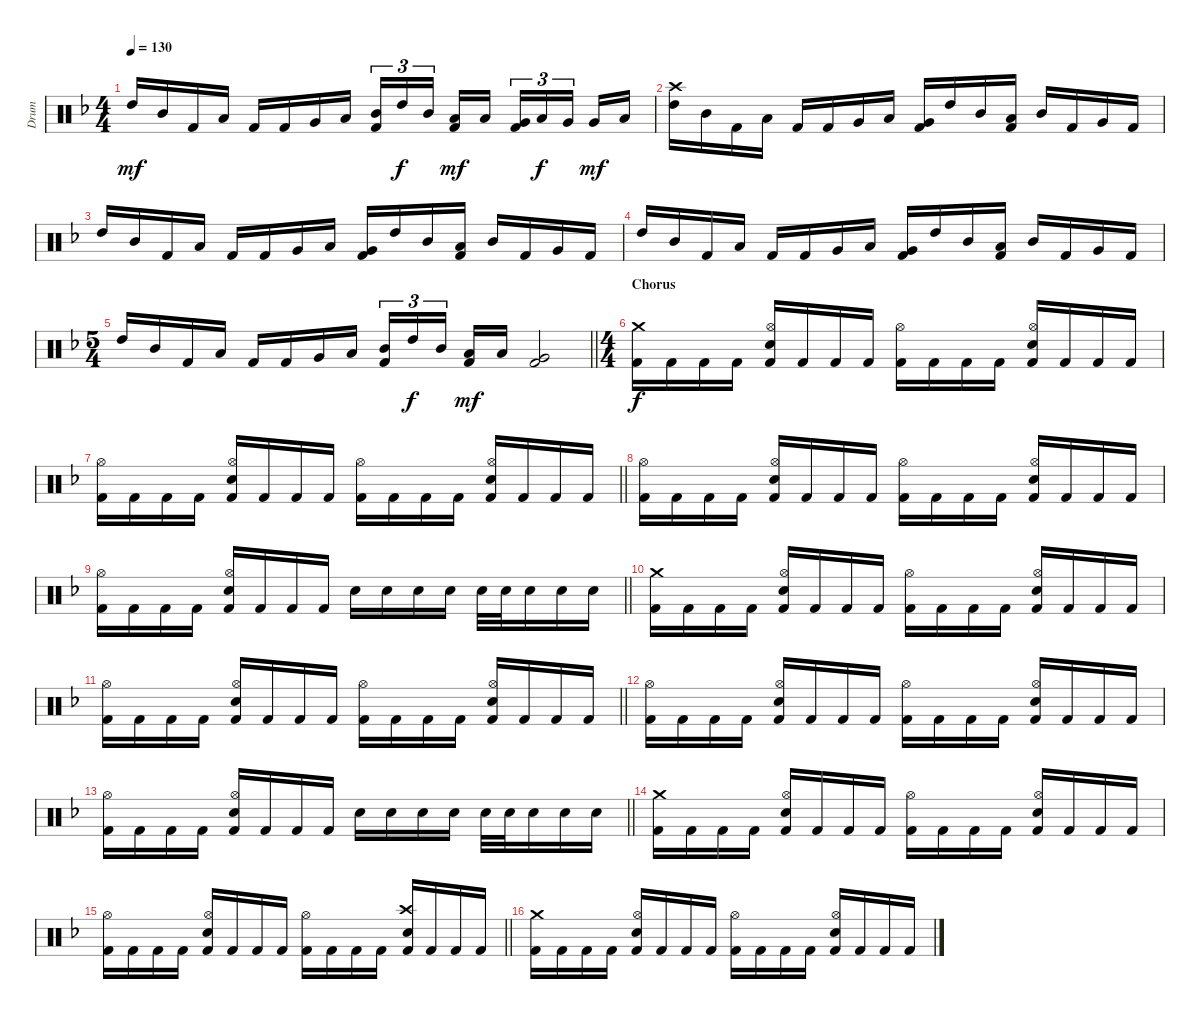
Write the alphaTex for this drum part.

\track ("Drum" "Drum") {instrument percussion}
\staff {score}
\articulation defaults
\ts (4 4)
\tempo 130
\clef neutral
\ks f "High Tom (hit)".16{dy mf} "Mid Tom (hit)".16 "Kick (hit) 2".16 "Low Tom (hit)".16 "Kick (hit) 2".16 "Kick (hit) 2".16 "Very Low Tom (hit)".16 "Low Floor Tom (hit)".16
("Mid Tom (hit)" "Kick (hit) 2").16{tu (3 2)} "High Tom (hit)".16{tu (3 2) dy f} "Mid Tom (hit)".16{tu (3 2) beam splitsecondary} ("Low Tom (hit)" "Kick (hit) 2").16{dy mf} "Low Tom (hit)".16 ("Very Low Tom (hit)" "Kick (hit) 2").16{tu (3 2)} "Low Tom (hit)".16{tu (3 2) dy f} "Very Low Tom (hit)".16{tu (3 2) beam splitsecondary} "Very Low Tom (hit)".16{dy mf} "Low Floor Tom (hit)".16 |
("Crash high (hit)" "High Tom (hit)").16 "Mid Tom (hit)".16 "Kick (hit) 2".16 "Low Tom (hit)".16 "Kick (hit) 2".16 "Kick (hit) 2".16 "Very Low Tom (hit)".16 "Low Floor Tom (hit)".16 ("Very Low Tom (hit)" "Kick (hit) 2").16 "High Tom (hit)".16 "Mid Tom (hit)".16 ("Low Tom (hit)" "Kick (hit) 2").16 "Mid Tom (hit)".16 "Kick (hit) 2".16 "Very Low Tom (hit)".16 "Kick (hit) 2".16 |
"High Tom (hit)".16 "Mid Tom (hit)".16 "Kick (hit) 2".16 "Low Tom (hit)".16 "Kick (hit) 2".16 "Kick (hit) 2".16 "Very Low Tom (hit)".16 "Low Floor Tom (hit)".16 ("Very Low Tom (hit)" "Kick (hit) 2").16 "High Tom (hit)".16 "Mid Tom (hit)".16 ("Low Tom (hit)" "Kick (hit) 2").16 "Mid Tom (hit)".16 "Kick (hit) 2".16 "Very Low Tom (hit)".16 "Kick (hit) 2".16 |
"High Tom (hit)".16 "Mid Tom (hit)".16 "Kick (hit) 2".16 "Low Tom (hit)".16 "Kick (hit) 2".16 "Kick (hit) 2".16 "Very Low Tom (hit)".16 "Low Floor Tom (hit)".16 ("Very Low Tom (hit)" "Kick (hit) 2").16 "High Tom (hit)".16 "Mid Tom (hit)".16 ("Low Tom (hit)" "Kick (hit) 2").16 "Mid Tom (hit)".16 "Kick (hit) 2".16 "Very Low Tom (hit)".16 "Kick (hit) 2".16 |
\ts (5 4)
\barLineRight lightlight "High Tom (hit)".16 "Mid Tom (hit)".16 "Kick (hit) 2".16 "Low Tom (hit)".16 "Kick (hit) 2".16 "Kick (hit) 2".16 "Very Low Tom (hit)".16 "Low Floor Tom (hit)".16
("Mid Tom (hit)" "Kick (hit) 2").16{tu (3 2)} "High Tom (hit)".16{tu (3 2) dy f} "Mid Tom (hit)".16{tu (3 2) beam splitsecondary} ("Low Tom (hit)" "Kick (hit) 2").16{dy mf} "Low Tom (hit)".16 ("Very Low Tom (hit)" "Kick (hit) 2").2 |
\ts (4 4)
\section ("" "Chorus")
("Crash medium (hit)" "Kick (hit) 2").16{dy f} "Kick (hit) 2".16 "Kick (hit) 2".16 "Kick (hit) 2".16 ("Hi-Hat (open)" "Electric Snare (hit)" "Kick (hit) 2").16 "Kick (hit) 2".16 "Kick (hit) 2".16 "Kick (hit) 2".16 ("Hi-Hat (open)" "Kick (hit) 2").16 "Kick (hit) 2".16 "Kick (hit) 2".16 "Kick (hit) 2".16 ("Hi-Hat (open)" "Electric Snare (hit)" "Kick (hit) 2").16 "Kick (hit) 2".16 "Kick (hit) 2".16 "Kick (hit) 2".16 |
\barLineRight lightlight
("Hi-Hat (open)" "Kick (hit) 2").16 "Kick (hit) 2".16 "Kick (hit) 2".16 "Kick (hit) 2".16 ("Hi-Hat (open)" "Electric Snare (hit)" "Kick (hit) 2").16 "Kick (hit) 2".16 "Kick (hit) 2".16 "Kick (hit) 2".16 ("Hi-Hat (open)" "Kick (hit) 2").16 "Kick (hit) 2".16 "Kick (hit) 2".16 "Kick (hit) 2".16 ("Hi-Hat (open)" "Electric Snare (hit)" "Kick (hit) 2").16 "Kick (hit) 2".16 "Kick (hit) 2".16 "Kick (hit) 2".16 |
("Hi-Hat (open)" "Kick (hit) 2").16 "Kick (hit) 2".16 "Kick (hit) 2".16 "Kick (hit) 2".16 ("Hi-Hat (open)" "Electric Snare (hit)" "Kick (hit) 2").16 "Kick (hit) 2".16 "Kick (hit) 2".16 "Kick (hit) 2".16 ("Hi-Hat (open)" "Kick (hit) 2").16 "Kick (hit) 2".16 "Kick (hit) 2".16 "Kick (hit) 2".16 ("Hi-Hat (open)" "Electric Snare (hit)" "Kick (hit) 2").16 "Kick (hit) 2".16 "Kick (hit) 2".16 "Kick (hit) 2".16 |
\barLineRight lightlight
("Hi-Hat (open)" "Kick (hit) 2").16 "Kick (hit) 2".16 "Kick (hit) 2".16 "Kick (hit) 2".16 ("Hi-Hat (open)" "Electric Snare (hit)" "Kick (hit) 2").16 "Kick (hit) 2".16 "Kick (hit) 2".16 "Kick (hit) 2".16 "Electric Snare (hit)".16 "Electric Snare (hit)".16 "Electric Snare (hit)".16 "Electric Snare (hit)".16 "Electric Snare (hit)".32 "Electric Snare (hit)".32 "Electric Snare (hit)".16 "Electric Snare (hit)".16 "Electric Snare (hit)".16 |
("Crash medium (hit)" "Kick (hit) 2").16 "Kick (hit) 2".16 "Kick (hit) 2".16 "Kick (hit) 2".16 ("Hi-Hat (open)" "Electric Snare (hit)" "Kick (hit) 2").16 "Kick (hit) 2".16 "Kick (hit) 2".16 "Kick (hit) 2".16 ("Hi-Hat (open)" "Kick (hit) 2").16 "Kick (hit) 2".16 "Kick (hit) 2".16 "Kick (hit) 2".16 ("Hi-Hat (open)" "Electric Snare (hit)" "Kick (hit) 2").16 "Kick (hit) 2".16 "Kick (hit) 2".16 "Kick (hit) 2".16 |
\barLineRight lightlight
("Hi-Hat (open)" "Kick (hit) 2").16 "Kick (hit) 2".16 "Kick (hit) 2".16 "Kick (hit) 2".16 ("Hi-Hat (open)" "Electric Snare (hit)" "Kick (hit) 2").16 "Kick (hit) 2".16 "Kick (hit) 2".16 "Kick (hit) 2".16 ("Hi-Hat (open)" "Kick (hit) 2").16 "Kick (hit) 2".16 "Kick (hit) 2".16 "Kick (hit) 2".16 ("Hi-Hat (open)" "Electric Snare (hit)" "Kick (hit) 2").16 "Kick (hit) 2".16 "Kick (hit) 2".16 "Kick (hit) 2".16 |
("Hi-Hat (open)" "Kick (hit) 2").16 "Kick (hit) 2".16 "Kick (hit) 2".16 "Kick (hit) 2".16 ("Hi-Hat (open)" "Electric Snare (hit)" "Kick (hit) 2").16 "Kick (hit) 2".16 "Kick (hit) 2".16 "Kick (hit) 2".16 ("Hi-Hat (open)" "Kick (hit) 2").16 "Kick (hit) 2".16 "Kick (hit) 2".16 "Kick (hit) 2".16 ("Hi-Hat (open)" "Electric Snare (hit)" "Kick (hit) 2").16 "Kick (hit) 2".16 "Kick (hit) 2".16 "Kick (hit) 2".16 |
\barLineRight lightlight
("Hi-Hat (open)" "Kick (hit) 2").16 "Kick (hit) 2".16 "Kick (hit) 2".16 "Kick (hit) 2".16 ("Hi-Hat (open)" "Electric Snare (hit)" "Kick (hit) 2").16 "Kick (hit) 2".16 "Kick (hit) 2".16 "Kick (hit) 2".16 "Electric Snare (hit)".16 "Electric Snare (hit)".16 "Electric Snare (hit)".16 "Electric Snare (hit)".16 "Electric Snare (hit)".32 "Electric Snare (hit)".32 "Electric Snare (hit)".16 "Electric Snare (hit)".16 "Electric Snare (hit)".16 |
("Crash medium (hit)" "Kick (hit) 2").16 "Kick (hit) 2".16 "Kick (hit) 2".16 "Kick (hit) 2".16 ("Hi-Hat (open)" "Electric Snare (hit)" "Kick (hit) 2").16 "Kick (hit) 2".16 "Kick (hit) 2".16 "Kick (hit) 2".16 ("Hi-Hat (open)" "Kick (hit) 2").16 "Kick (hit) 2".16 "Kick (hit) 2".16 "Kick (hit) 2".16 ("Hi-Hat (open)" "Electric Snare (hit)" "Kick (hit) 2").16 "Kick (hit) 2".16 "Kick (hit) 2".16 "Kick (hit) 2".16 |
\barLineRight lightlight
("Hi-Hat (open)" "Kick (hit) 2").16 "Kick (hit) 2".16 "Kick (hit) 2".16 "Kick (hit) 2".16 ("Hi-Hat (open)" "Electric Snare (hit)" "Kick (hit) 2").16 "Kick (hit) 2".16 "Kick (hit) 2".16 "Kick (hit) 2".16 ("Hi-Hat (open)" "Kick (hit) 2").16 "Kick (hit) 2".16 "Kick (hit) 2".16 "Kick (hit) 2".16 ("Crash high (hit)" "Electric Snare (hit)" "Kick (hit) 2").16 "Kick (hit) 2".16 "Kick (hit) 2".16 "Kick (hit) 2".16 |
("Crash medium (hit)" "Kick (hit) 2").16 "Kick (hit) 2".16 "Kick (hit) 2".16 "Kick (hit) 2".16 ("Hi-Hat (open)" "Electric Snare (hit)" "Kick (hit) 2").16 "Kick (hit) 2".16 "Kick (hit) 2".16 "Kick (hit) 2".16 ("Hi-Hat (open)" "Kick (hit) 2").16 "Kick (hit) 2".16 "Kick (hit) 2".16 "Kick (hit) 2".16 ("Hi-Hat (open)" "Electric Snare (hit)" "Kick (hit) 2").16 "Kick (hit) 2".16 "Kick (hit) 2".16 "Kick (hit) 2".16
